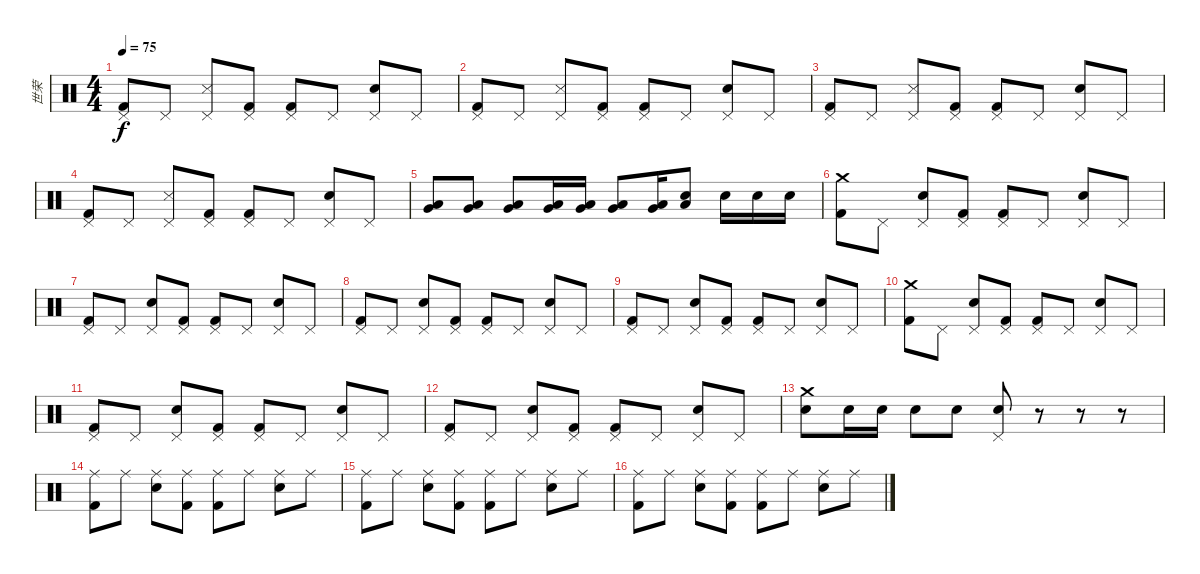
\track ("世荣" "世荣") {instrument percussion}
\staff {score}
\articulation defaults
\ts (4 4)
\tempo 75
\clef neutral
\ks c
("Pedal Hi-Hat (hit)" "Kick (hit) 2").8{dy f} "Pedal Hi-Hat (hit)".8 ("Pedal Hi-Hat (hit)" "Snare (side stick) 3").8 ("Pedal Hi-Hat (hit)" "Kick (hit) 2").8 ("Pedal Hi-Hat (hit)" "Kick (hit) 2").8 "Pedal Hi-Hat (hit)".8 ("Pedal Hi-Hat (hit)" "Electric Snare (hit)").8 "Pedal Hi-Hat (hit)".8 |
("Pedal Hi-Hat (hit)" "Kick (hit) 2").8 "Pedal Hi-Hat (hit)".8 ("Pedal Hi-Hat (hit)" "Snare (side stick) 3").8 ("Pedal Hi-Hat (hit)" "Kick (hit) 2").8 ("Pedal Hi-Hat (hit)" "Kick (hit) 2").8 "Pedal Hi-Hat (hit)".8 ("Pedal Hi-Hat (hit)" "Electric Snare (hit)").8 "Pedal Hi-Hat (hit)".8 |
("Pedal Hi-Hat (hit)" "Kick (hit) 2").8 "Pedal Hi-Hat (hit)".8 ("Pedal Hi-Hat (hit)" "Snare (side stick) 3").8 ("Pedal Hi-Hat (hit)" "Kick (hit) 2").8 ("Pedal Hi-Hat (hit)" "Kick (hit) 2").8 "Pedal Hi-Hat (hit)".8 ("Pedal Hi-Hat (hit)" "Electric Snare (hit)").8 "Pedal Hi-Hat (hit)".8 |
("Pedal Hi-Hat (hit)" "Kick (hit) 2").8 "Pedal Hi-Hat (hit)".8 ("Pedal Hi-Hat (hit)" "Snare (side stick) 3").8 ("Pedal Hi-Hat (hit)" "Kick (hit) 2").8 ("Pedal Hi-Hat (hit)" "Kick (hit) 2").8 "Pedal Hi-Hat (hit)".8 ("Pedal Hi-Hat (hit)" "Electric Snare (hit)").8 "Pedal Hi-Hat (hit)".8 |
("Low Floor Tom (hit)" "Very Low Tom (hit)").8 ("Low Floor Tom (hit)" "Very Low Tom (hit)").8 ("Low Floor Tom (hit)" "Very Low Tom (hit)").8 ("Low Floor Tom (hit)" "Very Low Tom (hit)").16 ("Low Floor Tom (hit)" "Very Low Tom (hit)").16 ("Low Floor Tom (hit)" "Very Low Tom (hit)").8 ("Low Floor Tom (hit)" "Very Low Tom (hit)").16 ("Low Floor Tom (hit)" "Electric Snare (hit)").8 "Electric Snare (hit)".16 "Electric Snare (hit)".16 "Electric Snare (hit)".16 |
("Crash medium (hit)" "Kick (hit) 2").8 "Pedal Hi-Hat (hit)".8 ("Pedal Hi-Hat (hit)" "Electric Snare (hit)").8 ("Pedal Hi-Hat (hit)" "Kick (hit) 2").8 ("Pedal Hi-Hat (hit)" "Kick (hit) 2").8 "Pedal Hi-Hat (hit)".8 ("Pedal Hi-Hat (hit)" "Electric Snare (hit)").8 "Pedal Hi-Hat (hit)".8 |
("Pedal Hi-Hat (hit)" "Kick (hit) 2").8 "Pedal Hi-Hat (hit)".8 ("Pedal Hi-Hat (hit)" "Electric Snare (hit)").8 ("Pedal Hi-Hat (hit)" "Kick (hit) 2").8 ("Pedal Hi-Hat (hit)" "Kick (hit) 2").8 "Pedal Hi-Hat (hit)".8 ("Pedal Hi-Hat (hit)" "Electric Snare (hit)").8 "Pedal Hi-Hat (hit)".8 |
("Pedal Hi-Hat (hit)" "Kick (hit) 2").8 "Pedal Hi-Hat (hit)".8 ("Pedal Hi-Hat (hit)" "Electric Snare (hit)").8 ("Pedal Hi-Hat (hit)" "Kick (hit) 2").8 ("Pedal Hi-Hat (hit)" "Kick (hit) 2").8 "Pedal Hi-Hat (hit)".8 ("Pedal Hi-Hat (hit)" "Electric Snare (hit)").8 "Pedal Hi-Hat (hit)".8 |
("Pedal Hi-Hat (hit)" "Kick (hit) 2").8 "Pedal Hi-Hat (hit)".8 ("Pedal Hi-Hat (hit)" "Electric Snare (hit)").8 ("Pedal Hi-Hat (hit)" "Kick (hit) 2").8 ("Pedal Hi-Hat (hit)" "Kick (hit) 2").8 "Pedal Hi-Hat (hit)".8 ("Pedal Hi-Hat (hit)" "Electric Snare (hit)").8 "Pedal Hi-Hat (hit)".8 |
("Crash medium (hit)" "Kick (hit) 2").8 "Pedal Hi-Hat (hit)".8 ("Pedal Hi-Hat (hit)" "Electric Snare (hit)").8 ("Pedal Hi-Hat (hit)" "Kick (hit) 2").8 ("Pedal Hi-Hat (hit)" "Kick (hit) 2").8 "Pedal Hi-Hat (hit)".8 ("Pedal Hi-Hat (hit)" "Electric Snare (hit)").8 "Pedal Hi-Hat (hit)".8 |
("Pedal Hi-Hat (hit)" "Kick (hit) 2").8 "Pedal Hi-Hat (hit)".8 ("Pedal Hi-Hat (hit)" "Electric Snare (hit)").8 ("Pedal Hi-Hat (hit)" "Kick (hit) 2").8 ("Pedal Hi-Hat (hit)" "Kick (hit) 2").8 "Pedal Hi-Hat (hit)".8 ("Pedal Hi-Hat (hit)" "Electric Snare (hit)").8 "Pedal Hi-Hat (hit)".8 |
("Pedal Hi-Hat (hit)" "Kick (hit) 2").8 "Pedal Hi-Hat (hit)".8 ("Pedal Hi-Hat (hit)" "Electric Snare (hit)").8 ("Pedal Hi-Hat (hit)" "Kick (hit) 2").8 ("Pedal Hi-Hat (hit)" "Kick (hit) 2").8 "Pedal Hi-Hat (hit)".8 ("Pedal Hi-Hat (hit)" "Electric Snare (hit)").8 "Pedal Hi-Hat (hit)".8 |
("Crash medium (hit)" "Electric Snare (hit)").8 "Electric Snare (hit)".16 "Electric Snare (hit)".16 "Electric Snare (hit)".8 "Electric Snare (hit)".8 ("Pedal Hi-Hat (hit)" "Electric Snare (hit)").8 r.8 r.8 r.8 |
("Ride (middle)" "Kick (hit) 2").8 "Ride (middle)".8 ("Ride (middle)" "Electric Snare (hit)").8 ("Ride (middle)" "Kick (hit) 2").8 ("Ride (middle)" "Kick (hit) 2").8 "Ride (middle)".8 ("Ride (middle)" "Electric Snare (hit)").8 "Ride (middle)".8 |
("Ride (middle)" "Kick (hit) 2").8 "Ride (middle)".8 ("Ride (middle)" "Electric Snare (hit)").8 ("Ride (middle)" "Kick (hit) 2").8 ("Ride (middle)" "Kick (hit) 2").8 "Ride (middle)".8 ("Ride (middle)" "Electric Snare (hit)").8 "Ride (middle)".8 |
("Ride (middle)" "Kick (hit) 2").8 "Ride (middle)".8 ("Ride (middle)" "Electric Snare (hit)").8 ("Ride (middle)" "Kick (hit) 2").8 ("Ride (middle)" "Kick (hit) 2").8 "Ride (middle)".8 ("Ride (middle)" "Electric Snare (hit)").8 "Ride (middle)".8
